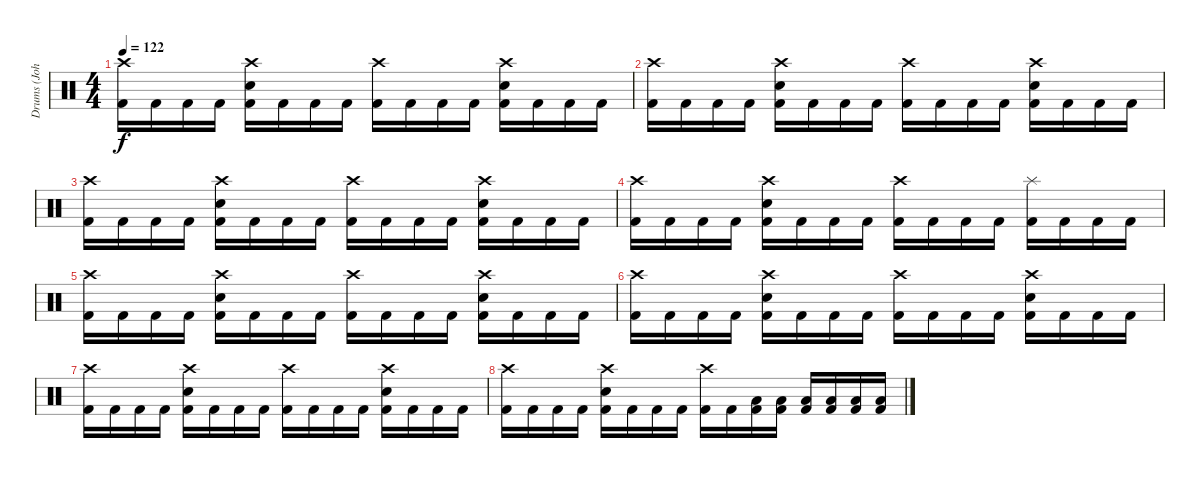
\track ("Drums (John)" "Drums (Joh") {instrument percussion}
\staff {score}
\articulation defaults
\ts (4 4)
\tempo 122
\clef neutral
\ks c
("Crash high (hit)" "Kick (hit) 2").16{dy f} "Kick (hit) 2".16 "Kick (hit) 2".16 "Kick (hit) 2".16 ("Crash high (hit)" "Electric Snare (hit)" "Kick (hit) 2").16 "Kick (hit) 2".16 "Kick (hit) 2".16 "Kick (hit) 2".16 ("Crash high (hit)" "Kick (hit) 2").16 "Kick (hit) 2".16 "Kick (hit) 2".16 "Kick (hit) 2".16 ("Crash high (hit)" "Electric Snare (hit)" "Kick (hit) 2").16 "Kick (hit) 2".16 "Kick (hit) 2".16 "Kick (hit) 2".16 |
("Crash high (hit)" "Kick (hit) 2").16 "Kick (hit) 2".16 "Kick (hit) 2".16 "Kick (hit) 2".16 ("Crash high (hit)" "Electric Snare (hit)" "Kick (hit) 2").16 "Kick (hit) 2".16 "Kick (hit) 2".16 "Kick (hit) 2".16 ("Crash high (hit)" "Kick (hit) 2").16 "Kick (hit) 2".16 "Kick (hit) 2".16 "Kick (hit) 2".16 ("Crash high (hit)" "Electric Snare (hit)" "Kick (hit) 2").16 "Kick (hit) 2".16 "Kick (hit) 2".16 "Kick (hit) 2".16 |
("Crash high (hit)" "Kick (hit) 2").16 "Kick (hit) 2".16 "Kick (hit) 2".16 "Kick (hit) 2".16 ("Crash high (hit)" "Electric Snare (hit)" "Kick (hit) 2").16 "Kick (hit) 2".16 "Kick (hit) 2".16 "Kick (hit) 2".16 ("Crash high (hit)" "Kick (hit) 2").16 "Kick (hit) 2".16 "Kick (hit) 2".16 "Kick (hit) 2".16 ("Crash high (hit)" "Electric Snare (hit)" "Kick (hit) 2").16 "Kick (hit) 2".16 "Kick (hit) 2".16 "Kick (hit) 2".16 |
("Crash high (hit)" "Kick (hit) 2").16 "Kick (hit) 2".16 "Kick (hit) 2".16 "Kick (hit) 2".16 ("Crash high (hit)" "Electric Snare (hit)" "Kick (hit) 2").16 "Kick (hit) 2".16 "Kick (hit) 2".16 "Kick (hit) 2".16 ("Crash high (hit)" "Kick (hit) 2").16 "Kick (hit) 2".16 "Kick (hit) 2".16 "Kick (hit) 2".16 ("Splash (hit)" "Kick (hit) 2").16 "Kick (hit) 2".16 "Kick (hit) 2".16 "Kick (hit) 2".16 |
("Crash high (hit)" "Kick (hit) 2").16 "Kick (hit) 2".16 "Kick (hit) 2".16 "Kick (hit) 2".16 ("Crash high (hit)" "Electric Snare (hit)" "Kick (hit) 2").16 "Kick (hit) 2".16 "Kick (hit) 2".16 "Kick (hit) 2".16 ("Crash high (hit)" "Kick (hit) 2").16 "Kick (hit) 2".16 "Kick (hit) 2".16 "Kick (hit) 2".16 ("Crash high (hit)" "Electric Snare (hit)" "Kick (hit) 2").16 "Kick (hit) 2".16 "Kick (hit) 2".16 "Kick (hit) 2".16 |
("Crash high (hit)" "Kick (hit) 2").16 "Kick (hit) 2".16 "Kick (hit) 2".16 "Kick (hit) 2".16 ("Crash high (hit)" "Electric Snare (hit)" "Kick (hit) 2").16 "Kick (hit) 2".16 "Kick (hit) 2".16 "Kick (hit) 2".16 ("Crash high (hit)" "Kick (hit) 2").16 "Kick (hit) 2".16 "Kick (hit) 2".16 "Kick (hit) 2".16 ("Crash high (hit)" "Electric Snare (hit)" "Kick (hit) 2").16 "Kick (hit) 2".16 "Kick (hit) 2".16 "Kick (hit) 2".16 |
("Crash high (hit)" "Kick (hit) 2").16 "Kick (hit) 2".16 "Kick (hit) 2".16 "Kick (hit) 2".16 ("Crash high (hit)" "Electric Snare (hit)" "Kick (hit) 2").16 "Kick (hit) 2".16 "Kick (hit) 2".16 "Kick (hit) 2".16 ("Crash high (hit)" "Kick (hit) 2").16 "Kick (hit) 2".16 "Kick (hit) 2".16 "Kick (hit) 2".16 ("Crash high (hit)" "Electric Snare (hit)" "Kick (hit) 2").16 "Kick (hit) 2".16 "Kick (hit) 2".16 "Kick (hit) 2".16 |
("Crash high (hit)" "Kick (hit) 2").16 "Kick (hit) 2".16 "Kick (hit) 2".16 "Kick (hit) 2".16 ("Crash high (hit)" "Electric Snare (hit)" "Kick (hit) 2").16 "Kick (hit) 2".16 "Kick (hit) 2".16 "Kick (hit) 2".16 ("Crash high (hit)" "Kick (hit) 2").16 "Kick (hit) 2".16 ("Low Tom (hit)" "Kick (hit) 2").16 ("Low Tom (hit)" "Kick (hit) 2").16 ("Low Tom (hit)" "Kick (hit) 2").16 ("Low Tom (hit)" "Kick (hit) 2").16 ("Low Tom (hit)" "Kick (hit) 2").16 ("Low Tom (hit)" "Kick (hit) 2").16
